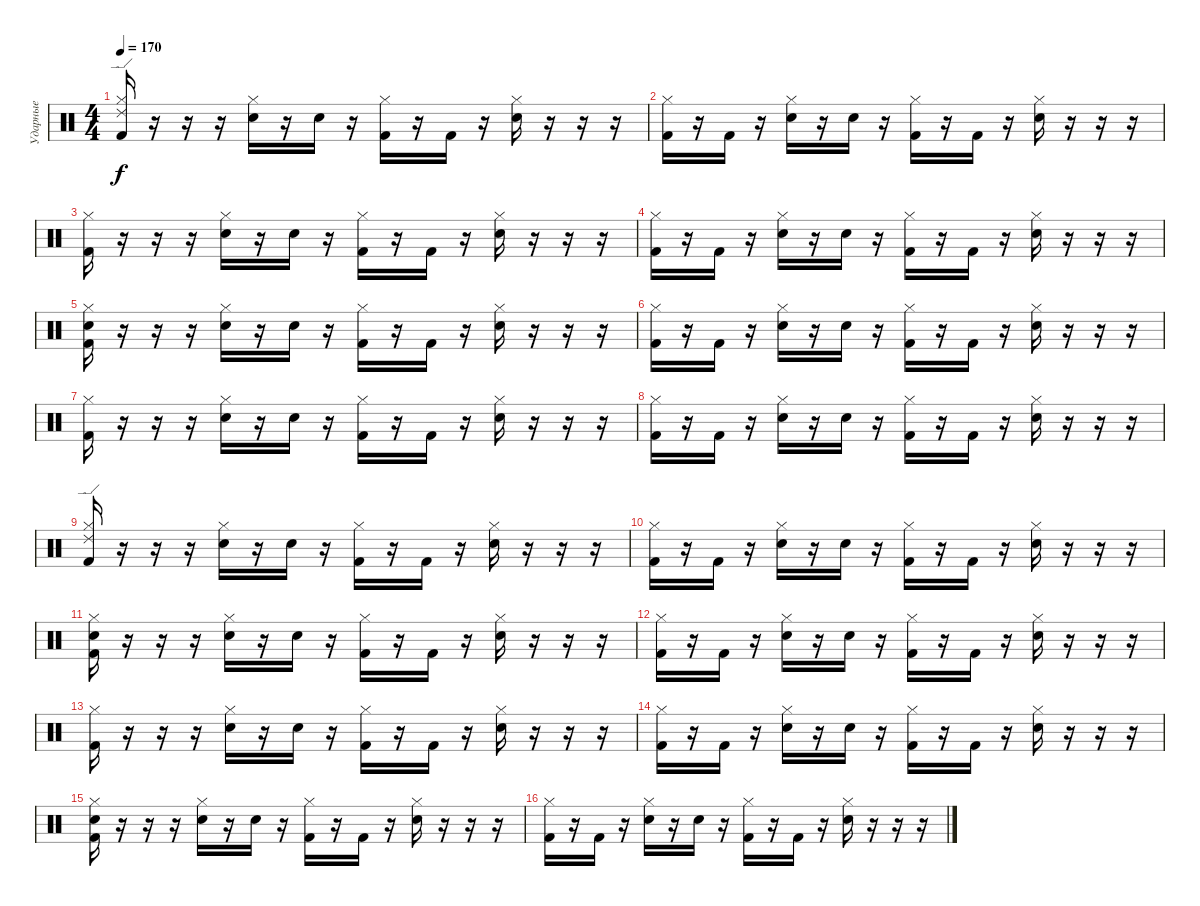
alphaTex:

\track ("Ударные" "Ударные") {instrument percussion}
\staff {score}
\articulation defaults
\ts (4 4)
\tempo 170
\clef neutral
\ks c
("Ride (edge) 2" "Hi-Hat (closed)" "Kick (hit) 2").16{dy f} r.16 r.16 r.16 ("Hi-Hat (closed)" "Snare (hit) 2").16 r.16 "Snare (hit) 2".16 r.16 ("Hi-Hat (closed)" "Kick (hit) 2").16 r.16 "Kick (hit) 2".16 r.16 ("Hi-Hat (closed)" "Snare (hit) 2").16 r.16 r.16 r.16 |
("Hi-Hat (closed)" "Kick (hit) 2").16 r.16 "Kick (hit) 2".16 r.16 ("Hi-Hat (closed)" "Snare (hit) 2").16 r.16 "Snare (hit) 2".16 r.16 ("Hi-Hat (closed)" "Kick (hit) 2").16 r.16 "Kick (hit) 2".16 r.16 ("Hi-Hat (closed)" "Snare (hit) 2").16 r.16 r.16 r.16 |
("Hi-Hat (closed)" "Kick (hit) 2").16 r.16 r.16 r.16 ("Hi-Hat (closed)" "Snare (hit) 2").16 r.16 "Snare (hit) 2".16 r.16 ("Hi-Hat (closed)" "Kick (hit) 2").16 r.16 "Kick (hit) 2".16 r.16 ("Hi-Hat (closed)" "Snare (hit) 2").16 r.16 r.16 r.16 |
("Hi-Hat (closed)" "Kick (hit) 2").16 r.16 "Kick (hit) 2".16 r.16 ("Hi-Hat (closed)" "Snare (hit) 2").16 r.16 "Snare (hit) 2".16 r.16 ("Hi-Hat (closed)" "Kick (hit) 2").16 r.16 "Kick (hit) 2".16 r.16 ("Hi-Hat (closed)" "Snare (hit) 2").16 r.16 r.16 r.16 |
("Hi-Hat (closed)" "Snare (hit) 2" "Kick (hit) 2").16 r.16 r.16 r.16 ("Hi-Hat (closed)" "Snare (hit) 2").16 r.16 "Snare (hit) 2".16 r.16 ("Hi-Hat (closed)" "Kick (hit) 2").16 r.16 "Kick (hit) 2".16 r.16 ("Hi-Hat (closed)" "Snare (hit) 2").16 r.16 r.16 r.16 |
("Hi-Hat (closed)" "Kick (hit) 2").16 r.16 "Kick (hit) 2".16 r.16 ("Hi-Hat (closed)" "Snare (hit) 2").16 r.16 "Snare (hit) 2".16 r.16 ("Hi-Hat (closed)" "Kick (hit) 2").16 r.16 "Kick (hit) 2".16 r.16 ("Hi-Hat (closed)" "Snare (hit) 2").16 r.16 r.16 r.16 |
("Hi-Hat (closed)" "Kick (hit) 2").16 r.16 r.16 r.16 ("Hi-Hat (closed)" "Snare (hit) 2").16 r.16 "Snare (hit) 2".16 r.16 ("Hi-Hat (closed)" "Kick (hit) 2").16 r.16 "Kick (hit) 2".16 r.16 ("Hi-Hat (closed)" "Snare (hit) 2").16 r.16 r.16 r.16 |
("Hi-Hat (closed)" "Kick (hit) 2").16 r.16 "Kick (hit) 2".16 r.16 ("Hi-Hat (closed)" "Snare (hit) 2").16 r.16 "Snare (hit) 2".16 r.16 ("Hi-Hat (closed)" "Kick (hit) 2").16 r.16 "Kick (hit) 2".16 r.16 ("Hi-Hat (closed)" "Snare (hit) 2").16 r.16 r.16 r.16 |
("Hi-Hat (closed)" "Ride (edge) 2" "Kick (hit) 2").16 r.16 r.16 r.16 ("Hi-Hat (closed)" "Snare (hit) 2").16 r.16 "Snare (hit) 2".16 r.16 ("Hi-Hat (closed)" "Kick (hit) 2").16 r.16 "Kick (hit) 2".16 r.16 ("Hi-Hat (closed)" "Snare (hit) 2").16 r.16 r.16 r.16 |
("Hi-Hat (closed)" "Kick (hit) 2").16 r.16 "Kick (hit) 2".16 r.16 ("Hi-Hat (closed)" "Snare (hit) 2").16 r.16 "Snare (hit) 2".16 r.16 ("Hi-Hat (closed)" "Kick (hit) 2").16 r.16 "Kick (hit) 2".16 r.16 ("Hi-Hat (closed)" "Snare (hit) 2").16 r.16 r.16 r.16 |
("Hi-Hat (closed)" "Snare (hit) 2" "Kick (hit) 2").16 r.16 r.16 r.16 ("Hi-Hat (closed)" "Snare (hit) 2").16 r.16 "Snare (hit) 2".16 r.16 ("Hi-Hat (closed)" "Kick (hit) 2").16 r.16 "Kick (hit) 2".16 r.16 ("Hi-Hat (closed)" "Snare (hit) 2").16 r.16 r.16 r.16 |
("Hi-Hat (closed)" "Kick (hit) 2").16 r.16 "Kick (hit) 2".16 r.16 ("Hi-Hat (closed)" "Snare (hit) 2").16 r.16 "Snare (hit) 2".16 r.16 ("Hi-Hat (closed)" "Kick (hit) 2").16 r.16 "Kick (hit) 2".16 r.16 ("Hi-Hat (closed)" "Snare (hit) 2").16 r.16 r.16 r.16 |
("Hi-Hat (closed)" "Kick (hit) 2").16 r.16 r.16 r.16 ("Hi-Hat (closed)" "Snare (hit) 2").16 r.16 "Snare (hit) 2".16 r.16 ("Hi-Hat (closed)" "Kick (hit) 2").16 r.16 "Kick (hit) 2".16 r.16 ("Hi-Hat (closed)" "Snare (hit) 2").16 r.16 r.16 r.16 |
("Hi-Hat (closed)" "Kick (hit) 2").16 r.16 "Kick (hit) 2".16 r.16 ("Hi-Hat (closed)" "Snare (hit) 2").16 r.16 "Snare (hit) 2".16 r.16 ("Hi-Hat (closed)" "Kick (hit) 2").16 r.16 "Kick (hit) 2".16 r.16 ("Hi-Hat (closed)" "Snare (hit) 2").16 r.16 r.16 r.16 |
("Hi-Hat (closed)" "Snare (hit) 2" "Kick (hit) 2").16 r.16 r.16 r.16 ("Hi-Hat (closed)" "Snare (hit) 2").16 r.16 "Snare (hit) 2".16 r.16 ("Hi-Hat (closed)" "Kick (hit) 2").16 r.16 "Kick (hit) 2".16 r.16 ("Hi-Hat (closed)" "Snare (hit) 2").16 r.16 r.16 r.16 |
("Hi-Hat (closed)" "Kick (hit) 2").16 r.16 "Kick (hit) 2".16 r.16 ("Hi-Hat (closed)" "Snare (hit) 2").16 r.16 "Snare (hit) 2".16 r.16 ("Hi-Hat (closed)" "Kick (hit) 2").16 r.16 "Kick (hit) 2".16 r.16 ("Hi-Hat (closed)" "Snare (hit) 2").16 r.16 r.16 r.16
